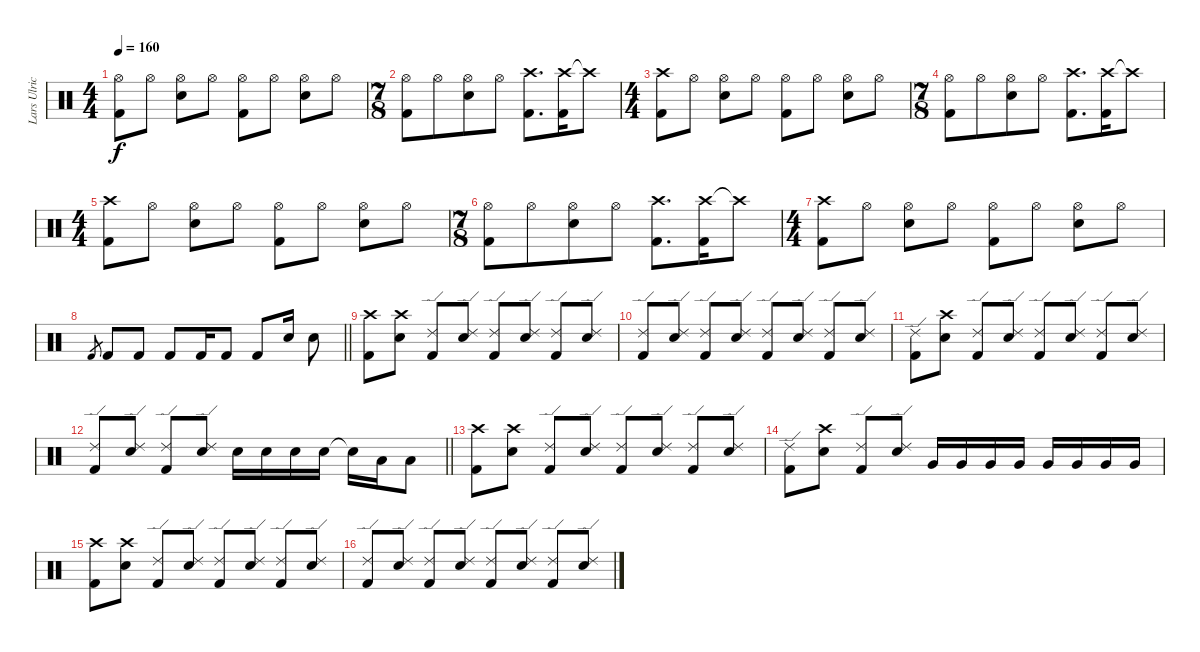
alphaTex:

\track ("Lars Ulrich" "Lars Ulric") {instrument percussion}
\staff {score}
\articulation defaults
\ts (4 4)
\tempo 160
\clef neutral
\ks c
("Hi-Hat (open)" "Kick (hit) 2").8{dy f} "Hi-Hat (open)".8 ("Hi-Hat (open)" "Electric Snare (hit)").8 "Hi-Hat (open)".8 ("Hi-Hat (open)" "Kick (hit) 2").8 "Hi-Hat (open)".8 ("Hi-Hat (open)" "Electric Snare (hit)").8 "Hi-Hat (open)".8 |
\ts (7 8)
("Hi-Hat (open)" "Kick (hit) 2").8 "Hi-Hat (open)".8 ("Hi-Hat (open)" "Electric Snare (hit)").8 "Hi-Hat (open)".8 ("Crash high (hit)" "Kick (hit) 2").8{d} ("Crash high (hit)" "Kick (hit) 2").16 "Crash high (hit)"{t}.8 |
\ts (4 4)
("Crash high (hit)" "Kick (hit) 2").8 "Hi-Hat (open)".8 ("Hi-Hat (open)" "Electric Snare (hit)").8 "Hi-Hat (open)".8 ("Hi-Hat (open)" "Kick (hit) 2").8 "Hi-Hat (open)".8 ("Hi-Hat (open)" "Electric Snare (hit)").8 "Hi-Hat (open)".8 |
\ts (7 8)
("Hi-Hat (open)" "Kick (hit) 2").8 "Hi-Hat (open)".8 ("Hi-Hat (open)" "Electric Snare (hit)").8 "Hi-Hat (open)".8 ("Crash high (hit)" "Kick (hit) 2").8{d} ("Crash high (hit)" "Kick (hit) 2").16 "Crash high (hit)"{t}.8 |
\ts (4 4)
("Crash high (hit)" "Kick (hit) 2").8 "Hi-Hat (open)".8 ("Hi-Hat (open)" "Electric Snare (hit)").8 "Hi-Hat (open)".8 ("Hi-Hat (open)" "Kick (hit) 2").8 "Hi-Hat (open)".8 ("Hi-Hat (open)" "Electric Snare (hit)").8 "Hi-Hat (open)".8 |
\ts (7 8)
("Hi-Hat (open)" "Kick (hit) 2").8 "Hi-Hat (open)".8 ("Hi-Hat (open)" "Electric Snare (hit)").8 "Hi-Hat (open)".8 ("Crash high (hit)" "Kick (hit) 2").8{d} ("Crash high (hit)" "Kick (hit) 2").16 "Crash high (hit)"{t}.8 |
\ts (4 4)
("Crash high (hit)" "Kick (hit) 2").8 "Hi-Hat (open)".8 ("Hi-Hat (open)" "Electric Snare (hit)").8 "Hi-Hat (open)".8 ("Hi-Hat (open)" "Kick (hit) 2").8 "Hi-Hat (open)".8 ("Hi-Hat (open)" "Electric Snare (hit)").8 "Hi-Hat (open)".8 |
\barLineRight lightlight "Kick (hit) 2".8{gr} "Kick (hit) 2".8 "Kick (hit) 2".8 "Kick (hit) 2".8 "Kick (hit) 2".16 "Kick (hit) 2".8 "Kick (hit) 2".8 "Electric Snare (hit)".16 "Electric Snare (hit)".8
|
("Crash high (hit)" "Kick (hit) 2").8 ("Crash high (hit)" "Electric Snare (hit)").8 ("Ride (edge) 2" "Kick (hit) 2").8 ("Ride (edge) 2" "Electric Snare (hit)").8 ("Ride (edge) 2" "Kick (hit) 2").8 ("Ride (edge) 2" "Electric Snare (hit)").8 ("Ride (edge) 2" "Kick (hit) 2").8 ("Ride (edge) 2" "Electric Snare (hit)").8 |
("Ride (edge) 2" "Kick (hit) 2").8 ("Ride (edge) 2" "Electric Snare (hit)").8 ("Ride (edge) 2" "Kick (hit) 2").8 ("Ride (edge) 2" "Electric Snare (hit)").8 ("Ride (edge) 2" "Kick (hit) 2").8 ("Ride (edge) 2" "Electric Snare (hit)").8 ("Ride (edge) 2" "Kick (hit) 2").8 ("Ride (edge) 2" "Electric Snare (hit)").8 |
("Ride (edge) 2" "Kick (hit) 2").8 ("Crash high (hit)" "Electric Snare (hit)").8 ("Ride (edge) 2" "Kick (hit) 2").8 ("Ride (edge) 2" "Electric Snare (hit)").8 ("Ride (edge) 2" "Kick (hit) 2").8 ("Ride (edge) 2" "Electric Snare (hit)").8 ("Ride (edge) 2" "Kick (hit) 2").8 ("Ride (edge) 2" "Electric Snare (hit)").8 |
\barLineRight lightlight
("Ride (edge) 2" "Kick (hit) 2").8 ("Ride (edge) 2" "Electric Snare (hit)").8 ("Ride (edge) 2" "Kick (hit) 2").8 ("Ride (edge) 2" "Electric Snare (hit)").8 "Electric Snare (hit)".16 "Electric Snare (hit)".16 "Electric Snare (hit)".16 "Electric Snare (hit)".16 "Snare (hit)"{t}.16 "Low Tom (hit)".16 "Low Tom (hit)".8 |
("Crash high (hit)" "Kick (hit) 2").8 ("Crash high (hit)" "Electric Snare (hit)").8 ("Ride (edge) 2" "Kick (hit) 2").8 ("Ride (edge) 2" "Electric Snare (hit)").8 ("Ride (edge) 2" "Kick (hit) 2").8 ("Ride (edge) 2" "Electric Snare (hit)").8 ("Ride (edge) 2" "Kick (hit) 2").8 ("Ride (edge) 2" "Electric Snare (hit)").8 |
("Ride (edge) 2" "Kick (hit) 2").8 ("Crash high (hit)" "Electric Snare (hit)").8 ("Ride (edge) 2" "Kick (hit) 2").8 ("Ride (edge) 2" "Electric Snare (hit)").8 "Very Low Tom (hit)".16 "Very Low Tom (hit)".16 "Very Low Tom (hit)".16 "Very Low Tom (hit)".16 "Very Low Tom (hit)".16 "Very Low Tom (hit)".16 "Very Low Tom (hit)".16 "Very Low Tom (hit)".16 |
("Crash high (hit)" "Kick (hit) 2").8 ("Crash high (hit)" "Electric Snare (hit)").8 ("Ride (edge) 2" "Kick (hit) 2").8 ("Ride (edge) 2" "Electric Snare (hit)").8 ("Ride (edge) 2" "Kick (hit) 2").8 ("Ride (edge) 2" "Electric Snare (hit)").8 ("Ride (edge) 2" "Kick (hit) 2").8 ("Ride (edge) 2" "Electric Snare (hit)").8 |
("Ride (edge) 2" "Kick (hit) 2").8 ("Ride (edge) 2" "Electric Snare (hit)").8 ("Ride (edge) 2" "Kick (hit) 2").8 ("Ride (edge) 2" "Electric Snare (hit)").8 ("Ride (edge) 2" "Kick (hit) 2").8 ("Ride (edge) 2" "Electric Snare (hit)").8 ("Ride (edge) 2" "Kick (hit) 2").8 ("Ride (edge) 2" "Electric Snare (hit)").8
